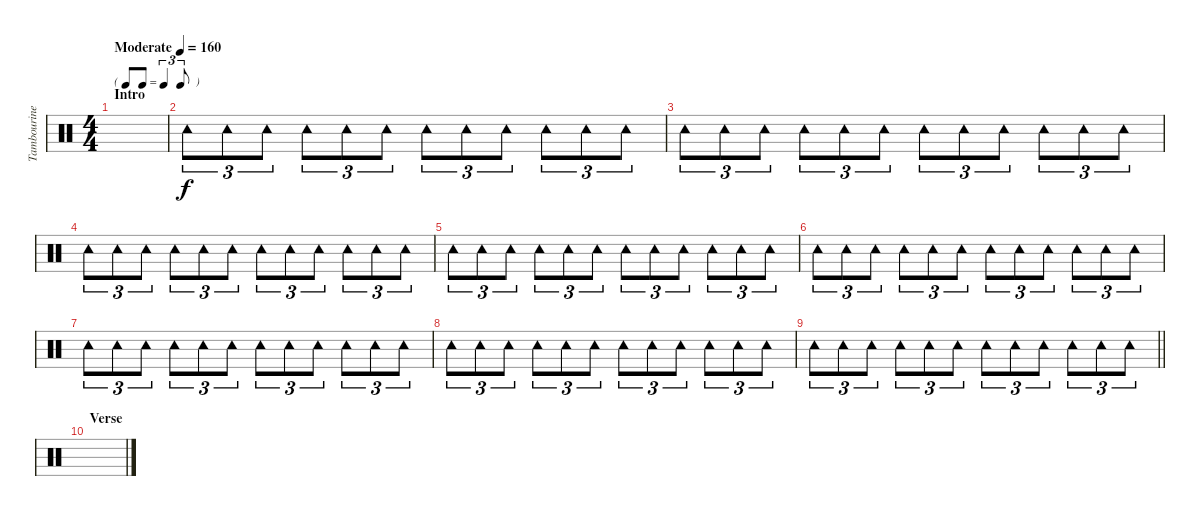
\track ("Tambourine" "Tambourine") {instrument percussion}
\staff {score}
\articulation defaults
\ts (4 4)
\tf triplet8th
\section ("" "Intro")
\tempo (160 "Moderate")
\clef neutral
\ks c
|
"Tambourine (hit)".8{tu (3 2)} "Tambourine (hit)".8{tu (3 2)} "Tambourine (hit)".8{tu (3 2)} "Tambourine (hit)".8{tu (3 2)} "Tambourine (hit)".8{tu (3 2)} "Tambourine (hit)".8{tu (3 2)} "Tambourine (hit)".8{tu (3 2)} "Tambourine (hit)".8{tu (3 2)} "Tambourine (hit)".8{tu (3 2)} "Tambourine (hit)".8{tu (3 2)} "Tambourine (hit)".8{tu (3 2)} "Tambourine (hit)".8{tu (3 2)} |
"Tambourine (hit)".8{tu (3 2)} "Tambourine (hit)".8{tu (3 2)} "Tambourine (hit)".8{tu (3 2)} "Tambourine (hit)".8{tu (3 2)} "Tambourine (hit)".8{tu (3 2)} "Tambourine (hit)".8{tu (3 2)} "Tambourine (hit)".8{tu (3 2)} "Tambourine (hit)".8{tu (3 2)} "Tambourine (hit)".8{tu (3 2)} "Tambourine (hit)".8{tu (3 2)} "Tambourine (hit)".8{tu (3 2)} "Tambourine (hit)".8{tu (3 2)} |
"Tambourine (hit)".8{tu (3 2)} "Tambourine (hit)".8{tu (3 2)} "Tambourine (hit)".8{tu (3 2)} "Tambourine (hit)".8{tu (3 2)} "Tambourine (hit)".8{tu (3 2)} "Tambourine (hit)".8{tu (3 2)} "Tambourine (hit)".8{tu (3 2)} "Tambourine (hit)".8{tu (3 2)} "Tambourine (hit)".8{tu (3 2)} "Tambourine (hit)".8{tu (3 2)} "Tambourine (hit)".8{tu (3 2)} "Tambourine (hit)".8{tu (3 2)} |
"Tambourine (hit)".8{tu (3 2)} "Tambourine (hit)".8{tu (3 2)} "Tambourine (hit)".8{tu (3 2)} "Tambourine (hit)".8{tu (3 2)} "Tambourine (hit)".8{tu (3 2)} "Tambourine (hit)".8{tu (3 2)} "Tambourine (hit)".8{tu (3 2)} "Tambourine (hit)".8{tu (3 2)} "Tambourine (hit)".8{tu (3 2)} "Tambourine (hit)".8{tu (3 2)} "Tambourine (hit)".8{tu (3 2)} "Tambourine (hit)".8{tu (3 2)} |
"Tambourine (hit)".8{tu (3 2)} "Tambourine (hit)".8{tu (3 2)} "Tambourine (hit)".8{tu (3 2)} "Tambourine (hit)".8{tu (3 2)} "Tambourine (hit)".8{tu (3 2)} "Tambourine (hit)".8{tu (3 2)} "Tambourine (hit)".8{tu (3 2)} "Tambourine (hit)".8{tu (3 2)} "Tambourine (hit)".8{tu (3 2)} "Tambourine (hit)".8{tu (3 2)} "Tambourine (hit)".8{tu (3 2)} "Tambourine (hit)".8{tu (3 2)} |
"Tambourine (hit)".8{tu (3 2)} "Tambourine (hit)".8{tu (3 2)} "Tambourine (hit)".8{tu (3 2)} "Tambourine (hit)".8{tu (3 2)} "Tambourine (hit)".8{tu (3 2)} "Tambourine (hit)".8{tu (3 2)} "Tambourine (hit)".8{tu (3 2)} "Tambourine (hit)".8{tu (3 2)} "Tambourine (hit)".8{tu (3 2)} "Tambourine (hit)".8{tu (3 2)} "Tambourine (hit)".8{tu (3 2)} "Tambourine (hit)".8{tu (3 2)} |
"Tambourine (hit)".8{tu (3 2)} "Tambourine (hit)".8{tu (3 2)} "Tambourine (hit)".8{tu (3 2)} "Tambourine (hit)".8{tu (3 2)} "Tambourine (hit)".8{tu (3 2)} "Tambourine (hit)".8{tu (3 2)} "Tambourine (hit)".8{tu (3 2)} "Tambourine (hit)".8{tu (3 2)} "Tambourine (hit)".8{tu (3 2)} "Tambourine (hit)".8{tu (3 2)} "Tambourine (hit)".8{tu (3 2)} "Tambourine (hit)".8{tu (3 2)} |
\barLineRight lightlight "Tambourine (hit)".8{tu (3 2)} "Tambourine (hit)".8{tu (3 2)} "Tambourine (hit)".8{tu (3 2)} "Tambourine (hit)".8{tu (3 2)} "Tambourine (hit)".8{tu (3 2)} "Tambourine (hit)".8{tu (3 2)} "Tambourine (hit)".8{tu (3 2)} "Tambourine (hit)".8{tu (3 2)} "Tambourine (hit)".8{tu (3 2)} "Tambourine (hit)".8{tu (3 2)} "Tambourine (hit)".8{tu (3 2)} "Tambourine (hit)".8{tu (3 2)}
|
\section ("" "Verse")
